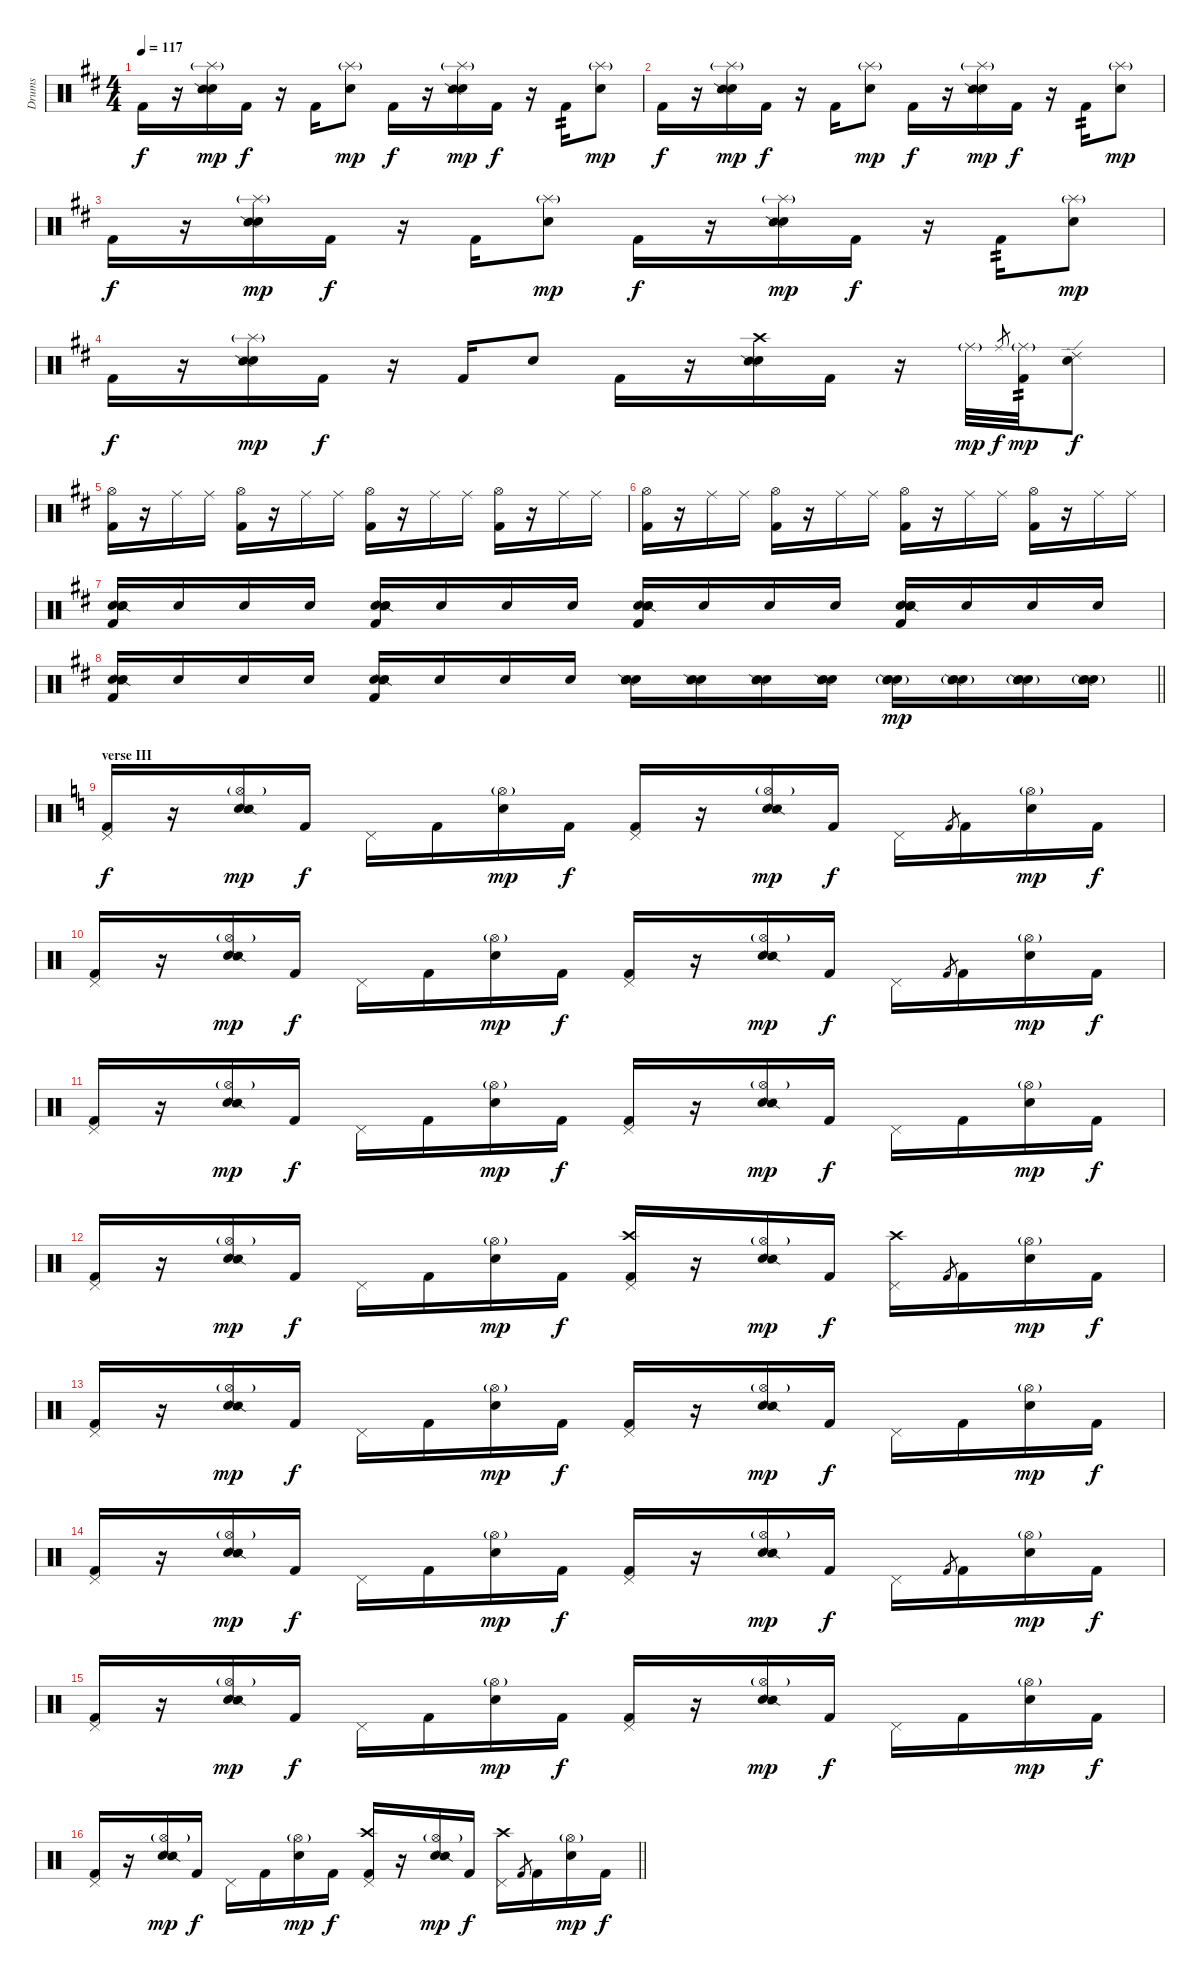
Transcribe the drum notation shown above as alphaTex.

\track ("Drums" "Drums") {instrument percussion}
\staff {score}
\articulation defaults
\ts (4 4)
\tempo 117
\clef neutral
\ks d "Kick (hit) 2".16{dy f}
r.16 ("Splash (hit)"{g} "Snare (hit) 2" "Snare (side stick) 2").16{dy mp} "Kick (hit) 2".16{dy f} r.16 "Kick (hit) 2".16 ("Splash (hit)"{g} "Snare (hit) 2").8{dy mp} "Kick (hit) 2".16{dy f} r.16 ("Splash (hit)"{g} "Snare (hit) 2" "Snare (side stick) 2").16{dy mp} "Kick (hit) 2".16{dy f} r.16 "Kick (hit) 2".16{tp 2} ("Splash (hit)"{g} "Snare (hit) 2").8{dy mp} |
"Kick (hit) 2".16{dy f} r.16 ("Splash (hit)"{g} "Snare (hit) 2" "Snare (side stick) 2").16{dy mp} "Kick (hit) 2".16{dy f} r.16 "Kick (hit) 2".16 ("Splash (hit)"{g} "Snare (hit) 2").8{dy mp} "Kick (hit) 2".16{dy f} r.16 ("Splash (hit)"{g} "Snare (hit) 2" "Snare (side stick) 2").16{dy mp} "Kick (hit) 2".16{dy f} r.16 "Kick (hit) 2".16{tp 2} ("Splash (hit)"{g} "Snare (hit) 2").8{dy mp} |
"Kick (hit) 2".16{dy f} r.16 ("Splash (hit)"{g} "Snare (hit) 2" "Snare (side stick) 2").16{dy mp} "Kick (hit) 2".16{dy f} r.16 "Kick (hit) 2".16 ("Splash (hit)"{g} "Snare (hit) 2").8{dy mp} "Kick (hit) 2".16{dy f} r.16 ("Splash (hit)"{g} "Snare (hit) 2" "Snare (side stick) 2").16{dy mp} "Kick (hit) 2".16{dy f} r.16 "Kick (hit) 2".16{tp 2} ("Splash (hit)"{g} "Snare (hit) 2").8{dy mp} |
"Kick (hit) 2".16{dy f} r.16 ("Splash (hit)"{g} "Snare (hit) 2" "Snare (side stick) 2").16{dy mp} "Kick (hit) 2".16{dy f} r.16 "Kick (hit) 2".16 "Snare (hit) 2".8 "Kick (hit) 2".16 r.16 ("Crash high (hit)" "Snare (hit) 2" "Snare (side stick) 2").16 "Kick (hit) 2".16 r.16 "Ride (middle)"{g}.32{dy mp} "Ride (middle)".8{gr dy f} ("Ride (middle)"{g} "Kick (hit) 2").32{tp 2 dy mp} ("Ride (edge) 2" "Snare (hit) 2").8{dy f} |
("Hi-Hat (open)" "Kick (hit) 2").16 r.16 "Ride (middle)".16 "Ride (middle)".16{volume 10} ("Hi-Hat (open)" "Kick (hit) 2").16 r.16 "Ride (middle)".16{volume 12} "Ride (middle)".16{volume 10} ("Hi-Hat (open)" "Kick (hit) 2").16 r.16 "Ride (middle)".16{volume 12} "Ride (middle)".16{volume 10} ("Hi-Hat (open)" "Kick (hit) 2").16 r.16 "Ride (middle)".16{volume 12} "Ride (middle)".16{volume 10} |
("Hi-Hat (open)" "Kick (hit) 2").16 r.16 "Ride (middle)".16{volume 12} "Ride (middle)".16{volume 10} ("Hi-Hat (open)" "Kick (hit) 2").16 r.16 "Ride (middle)".16{volume 12} "Ride (middle)".16{volume 10} ("Hi-Hat (open)" "Kick (hit) 2").16 r.16 "Ride (middle)".16{volume 12} "Ride (middle)".16{volume 10} ("Hi-Hat (open)" "Kick (hit) 2").16 r.16 "Ride (middle)".16{volume 12} "Ride (middle)".16{volume 10} |
("Snare (hit) 2" "Electric Snare (hit)" "Snare (side stick) 2" "Kick (hit) 2").16 "Electric Snare (hit)".16 "Electric Snare (hit)".16 "Electric Snare (hit)".16 ("Snare (hit) 2" "Electric Snare (hit)" "Snare (side stick) 2" "Kick (hit) 2").16 "Electric Snare (hit)".16 "Electric Snare (hit)".16 "Electric Snare (hit)".16 ("Snare (hit) 2" "Electric Snare (hit)" "Snare (side stick) 2" "Kick (hit) 2").16 "Electric Snare (hit)".16 "Electric Snare (hit)".16 "Electric Snare (hit)".16 ("Snare (hit) 2" "Electric Snare (hit)" "Snare (side stick) 2" "Kick (hit) 2").16 "Electric Snare (hit)".16 "Electric Snare (hit)".16 "Electric Snare (hit)".16 |
\barLineRight lightlight
("Snare (hit) 2" "Electric Snare (hit)" "Snare (side stick) 2" "Kick (hit) 2").16 "Electric Snare (hit)".16 "Electric Snare (hit)".16 "Electric Snare (hit)".16 ("Snare (hit) 2" "Electric Snare (hit)" "Snare (side stick) 2" "Kick (hit) 2").16 "Electric Snare (hit)".16 "Electric Snare (hit)".16 "Electric Snare (hit)".16 ("Snare (hit) 2" "Electric Snare (hit)" "Snare (side stick) 2").16 ("Snare (hit) 2" "Electric Snare (hit)" "Snare (side stick) 2").16 ("Snare (hit) 2" "Electric Snare (hit)" "Snare (side stick) 2").16 ("Snare (hit) 2" "Electric Snare (hit)" "Snare (side stick) 2").16 ("Snare (hit) 2" "Electric Snare (hit)" "Snare (side stick) 2"{g}).16{dy mp} ("Snare (hit) 2" "Electric Snare (hit)" "Snare (side stick) 2"{g}).16 ("Snare (hit) 2" "Electric Snare (hit)" "Snare (side stick) 2"{g}).16 ("Snare (hit) 2" "Electric Snare (hit)" "Snare (side stick) 2"{g}).16 |
\section ("" "verse III")
\ks c
("Pedal Hi-Hat (hit)" "Kick (hit) 2").16{dy f} r.16 ("Hi-Hat (open)"{g} "Electric Snare (hit)" "Snare (side stick) 2").16{dy mp} "Kick (hit) 2".16{dy f} "Pedal Hi-Hat (hit)".16 "Kick (hit) 2".16 ("Hi-Hat (open)"{g} "Electric Snare (hit)").16{dy mp} "Kick (hit) 2".16{dy f} ("Pedal Hi-Hat (hit)" "Kick (hit) 2").16 r.16 ("Hi-Hat (open)"{g} "Electric Snare (hit)" "Snare (side stick) 2").16{dy mp} "Kick (hit) 2".16{dy f} "Pedal Hi-Hat (hit)".16 "Kick (hit) 2".8{gr} "Kick (hit) 2".16 ("Hi-Hat (open)"{g} "Electric Snare (hit)").16{dy mp} "Kick (hit) 2".16{dy f} |
("Pedal Hi-Hat (hit)" "Kick (hit) 2").16 r.16 ("Hi-Hat (open)"{g} "Electric Snare (hit)" "Snare (side stick) 2").16{dy mp} "Kick (hit) 2".16{dy f} "Pedal Hi-Hat (hit)".16 "Kick (hit) 2".16 ("Hi-Hat (open)"{g} "Electric Snare (hit)").16{dy mp} "Kick (hit) 2".16{dy f} ("Pedal Hi-Hat (hit)" "Kick (hit) 2").16 r.16 ("Hi-Hat (open)"{g} "Electric Snare (hit)" "Snare (side stick) 2").16{dy mp} "Kick (hit) 2".16{dy f} "Pedal Hi-Hat (hit)".16 "Kick (hit) 2".8{gr} "Kick (hit) 2".16 ("Hi-Hat (open)"{g} "Electric Snare (hit)").16{dy mp} "Kick (hit) 2".16{dy f} |
("Pedal Hi-Hat (hit)" "Kick (hit) 2").16 r.16 ("Hi-Hat (open)"{g} "Electric Snare (hit)" "Snare (side stick) 2").16{dy mp} "Kick (hit) 2".16{dy f} "Pedal Hi-Hat (hit)".16 "Kick (hit) 2".16 ("Hi-Hat (open)"{g} "Electric Snare (hit)").16{dy mp} "Kick (hit) 2".16{dy f} ("Pedal Hi-Hat (hit)" "Kick (hit) 2").16 r.16 ("Hi-Hat (open)"{g} "Electric Snare (hit)" "Snare (side stick) 2").16{dy mp} "Kick (hit) 2".16{dy f} "Pedal Hi-Hat (hit)".16 "Kick (hit) 2".16 ("Hi-Hat (open)"{g} "Electric Snare (hit)").16{dy mp} "Kick (hit) 2".16{dy f} |
("Pedal Hi-Hat (hit)" "Kick (hit) 2").16 r.16 ("Hi-Hat (open)"{g} "Electric Snare (hit)" "Snare (side stick) 2").16{dy mp} "Kick (hit) 2".16{dy f} "Pedal Hi-Hat (hit)".16 "Kick (hit) 2".16 ("Hi-Hat (open)"{g} "Electric Snare (hit)").16{dy mp} "Kick (hit) 2".16{dy f} ("Pedal Hi-Hat (hit)" "Crash high (hit)" "Kick (hit) 2").16 r.16 ("Hi-Hat (open)"{g} "Electric Snare (hit)" "Snare (side stick) 2").16{dy mp} "Kick (hit) 2".16{dy f} ("Pedal Hi-Hat (hit)" "Crash high (hit)").16 "Kick (hit) 2".8{gr} "Kick (hit) 2".16 ("Hi-Hat (open)"{g} "Electric Snare (hit)").16{dy mp} "Kick (hit) 2".16{dy f} |
("Pedal Hi-Hat (hit)" "Kick (hit) 2").16 r.16 ("Hi-Hat (open)"{g} "Electric Snare (hit)" "Snare (side stick) 2").16{dy mp} "Kick (hit) 2".16{dy f} "Pedal Hi-Hat (hit)".16 "Kick (hit) 2".16 ("Hi-Hat (open)"{g} "Electric Snare (hit)").16{dy mp} "Kick (hit) 2".16{dy f} ("Pedal Hi-Hat (hit)" "Kick (hit) 2").16 r.16 ("Hi-Hat (open)"{g} "Electric Snare (hit)" "Snare (side stick) 2").16{dy mp} "Kick (hit) 2".16{dy f} "Pedal Hi-Hat (hit)".16 "Kick (hit) 2".16 ("Hi-Hat (open)"{g} "Electric Snare (hit)").16{dy mp} "Kick (hit) 2".16{dy f} |
("Pedal Hi-Hat (hit)" "Kick (hit) 2").16 r.16 ("Hi-Hat (open)"{g} "Electric Snare (hit)" "Snare (side stick) 2").16{dy mp} "Kick (hit) 2".16{dy f} "Pedal Hi-Hat (hit)".16 "Kick (hit) 2".16 ("Hi-Hat (open)"{g} "Electric Snare (hit)").16{dy mp} "Kick (hit) 2".16{dy f} ("Pedal Hi-Hat (hit)" "Kick (hit) 2").16 r.16 ("Hi-Hat (open)"{g} "Electric Snare (hit)" "Snare (side stick) 2").16{dy mp} "Kick (hit) 2".16{dy f} "Pedal Hi-Hat (hit)".16 "Kick (hit) 2".8{gr} "Kick (hit) 2".16 ("Hi-Hat (open)"{g} "Electric Snare (hit)").16{dy mp} "Kick (hit) 2".16{dy f} |
("Pedal Hi-Hat (hit)" "Kick (hit) 2").16 r.16 ("Hi-Hat (open)"{g} "Electric Snare (hit)" "Snare (side stick) 2").16{dy mp} "Kick (hit) 2".16{dy f} "Pedal Hi-Hat (hit)".16 "Kick (hit) 2".16 ("Hi-Hat (open)"{g} "Electric Snare (hit)").16{dy mp} "Kick (hit) 2".16{dy f} ("Pedal Hi-Hat (hit)" "Kick (hit) 2").16 r.16 ("Hi-Hat (open)"{g} "Electric Snare (hit)" "Snare (side stick) 2").16{dy mp} "Kick (hit) 2".16{dy f} "Pedal Hi-Hat (hit)".16 "Kick (hit) 2".16 ("Hi-Hat (open)"{g} "Electric Snare (hit)").16{dy mp} "Kick (hit) 2".16{dy f} |
\barLineRight lightlight
("Pedal Hi-Hat (hit)" "Kick (hit) 2").16 r.16 ("Hi-Hat (open)"{g} "Electric Snare (hit)" "Snare (side stick) 2").16{dy mp} "Kick (hit) 2".16{dy f} "Pedal Hi-Hat (hit)".16 "Kick (hit) 2".16 ("Hi-Hat (open)"{g} "Electric Snare (hit)").16{dy mp} "Kick (hit) 2".16{dy f} ("Pedal Hi-Hat (hit)" "Crash high (hit)" "Kick (hit) 2").16 r.16 ("Hi-Hat (open)"{g} "Electric Snare (hit)" "Snare (side stick) 2").16{dy mp} "Kick (hit) 2".16{dy f} ("Pedal Hi-Hat (hit)" "Crash high (hit)").16 "Kick (hit) 2".8{gr} "Kick (hit) 2".16 ("Hi-Hat (open)"{g} "Electric Snare (hit)").16{dy mp} "Kick (hit) 2".16{dy f}
